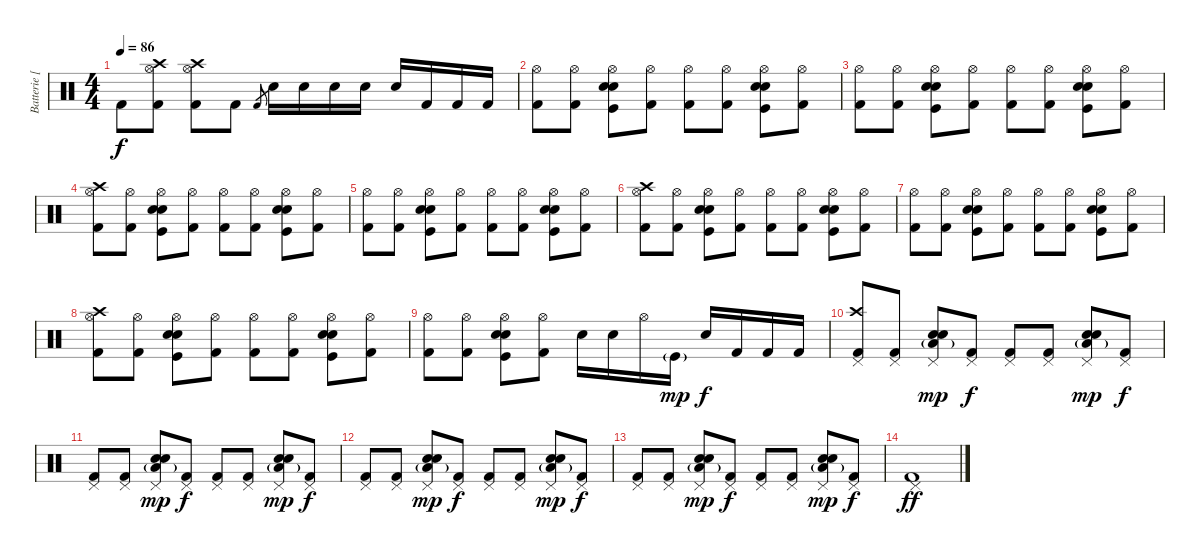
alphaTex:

\track ("Batterie [Dominic Howard]" "Batterie [") {instrument percussion}
\staff {score}
\articulation defaults
\ts (4 4)
\tempo 86
\clef neutral
\ks c "Kick (hit) 2".8{dy f}
("Crash high (hit)" "Hi-Hat (open)" "Kick (hit) 2").8 ("Crash high (hit)" "Hi-Hat (open)" "Kick (hit) 2").8 "Kick (hit) 2".8 "Kick (hit) 2"{sl}.8{gr} "Snare (hit) 2".16 "Snare (hit) 2".16 "Snare (hit) 2".16 "Snare (hit) 2".16 "Snare (hit) 2".16 "Kick (hit) 2".16 "Kick (hit) 2".16 "Kick (hit) 2".16 |
("Hi-Hat (open)" "Kick (hit) 2").8 ("Hi-Hat (open)" "Kick (hit) 2").8 ("Hi-Hat (open)" "Snare (hit) 2" "Electric Snare (hit)" "Kick (hit)").8 ("Hi-Hat (open)" "Kick (hit) 2").8 ("Hi-Hat (open)" "Kick (hit) 2").8 ("Hi-Hat (open)" "Kick (hit) 2").8 ("Hi-Hat (open)" "Snare (hit) 2" "Electric Snare (hit)" "Kick (hit)").8 ("Hi-Hat (open)" "Kick (hit) 2").8 |
("Hi-Hat (open)" "Kick (hit) 2").8 ("Hi-Hat (open)" "Kick (hit) 2").8 ("Hi-Hat (open)" "Snare (hit) 2" "Electric Snare (hit)" "Kick (hit)").8 ("Hi-Hat (open)" "Kick (hit) 2").8 ("Hi-Hat (open)" "Kick (hit) 2").8 ("Hi-Hat (open)" "Kick (hit) 2").8 ("Hi-Hat (open)" "Snare (hit) 2" "Electric Snare (hit)" "Kick (hit)").8 ("Hi-Hat (open)" "Kick (hit) 2").8 |
("Hi-Hat (open)" "Crash high (hit)" "Kick (hit) 2").8 ("Hi-Hat (open)" "Kick (hit) 2").8 ("Hi-Hat (open)" "Snare (hit) 2" "Electric Snare (hit)" "Kick (hit)").8 ("Hi-Hat (open)" "Kick (hit) 2").8 ("Hi-Hat (open)" "Kick (hit) 2").8 ("Hi-Hat (open)" "Kick (hit) 2").8 ("Hi-Hat (open)" "Snare (hit) 2" "Electric Snare (hit)" "Kick (hit)").8 ("Hi-Hat (open)" "Kick (hit) 2").8 |
("Hi-Hat (open)" "Kick (hit) 2").8 ("Hi-Hat (open)" "Kick (hit) 2").8 ("Hi-Hat (open)" "Snare (hit) 2" "Electric Snare (hit)" "Kick (hit)").8 ("Hi-Hat (open)" "Kick (hit) 2").8 ("Hi-Hat (open)" "Kick (hit) 2").8 ("Hi-Hat (open)" "Kick (hit) 2").8 ("Hi-Hat (open)" "Snare (hit) 2" "Electric Snare (hit)" "Kick (hit)").8 ("Hi-Hat (open)" "Kick (hit) 2").8 |
("Hi-Hat (open)" "Crash high (hit)" "Kick (hit) 2").8 ("Hi-Hat (open)" "Kick (hit) 2").8 ("Hi-Hat (open)" "Snare (hit) 2" "Electric Snare (hit)" "Kick (hit)").8 ("Hi-Hat (open)" "Kick (hit) 2").8 ("Hi-Hat (open)" "Kick (hit) 2").8 ("Hi-Hat (open)" "Kick (hit) 2").8 ("Hi-Hat (open)" "Snare (hit) 2" "Electric Snare (hit)" "Kick (hit)").8 ("Hi-Hat (open)" "Kick (hit) 2").8 |
("Hi-Hat (open)" "Kick (hit) 2").8 ("Hi-Hat (open)" "Kick (hit) 2").8 ("Hi-Hat (open)" "Snare (hit) 2" "Electric Snare (hit)" "Kick (hit)").8 ("Hi-Hat (open)" "Kick (hit) 2").8 ("Hi-Hat (open)" "Kick (hit) 2").8 ("Hi-Hat (open)" "Kick (hit) 2").8 ("Hi-Hat (open)" "Snare (hit) 2" "Electric Snare (hit)" "Kick (hit)").8 ("Hi-Hat (open)" "Kick (hit) 2").8 |
("Hi-Hat (open)" "Crash high (hit)" "Kick (hit) 2").8 ("Hi-Hat (open)" "Kick (hit) 2").8 ("Hi-Hat (open)" "Snare (hit) 2" "Electric Snare (hit)" "Kick (hit)").8 ("Hi-Hat (open)" "Kick (hit) 2").8 ("Hi-Hat (open)" "Kick (hit) 2").8 ("Hi-Hat (open)" "Kick (hit) 2").8 ("Hi-Hat (open)" "Snare (hit) 2" "Electric Snare (hit)" "Kick (hit)").8 ("Hi-Hat (open)" "Kick (hit) 2").8 |
("Hi-Hat (open)" "Kick (hit) 2").8 ("Hi-Hat (open)" "Kick (hit) 2").8 ("Hi-Hat (open)" "Snare (hit) 2" "Electric Snare (hit)" "Kick (hit)").8 ("Hi-Hat (open)" "Kick (hit) 2").8 "Electric Snare (hit)".16 "Electric Snare (hit)".16 "Hi-Hat (open)".16 "Kick (hit)"{g}.16{dy mp} "Electric Snare (hit)".16{dy f} "Kick (hit) 2".16 "Kick (hit) 2".16 "Kick (hit) 2".16 |
("Kick (hit) 2" "Crash high (hit)" "Pedal Hi-Hat (hit)").8 ("Kick (hit) 2" "Pedal Hi-Hat (hit)").8 ("Snare (hit) 2" "Electric Snare (hit)" "Low Tom (hit)"{g} "Pedal Hi-Hat (hit)").8{dy mp} ("Kick (hit) 2" "Pedal Hi-Hat (hit)").8{dy f} ("Kick (hit) 2" "Pedal Hi-Hat (hit)").8 ("Kick (hit) 2" "Pedal Hi-Hat (hit)").8 ("Snare (hit) 2" "Electric Snare (hit)" "Low Tom (hit)"{g} "Pedal Hi-Hat (hit)").8{dy mp} ("Kick (hit) 2" "Pedal Hi-Hat (hit)").8{dy f} |
("Kick (hit) 2" "Pedal Hi-Hat (hit)").8 ("Kick (hit) 2" "Pedal Hi-Hat (hit)").8 ("Snare (hit) 2" "Electric Snare (hit)" "Low Tom (hit)"{g} "Pedal Hi-Hat (hit)").8{dy mp} ("Kick (hit) 2" "Pedal Hi-Hat (hit)").8{dy f} ("Kick (hit) 2" "Pedal Hi-Hat (hit)").8 ("Kick (hit) 2" "Pedal Hi-Hat (hit)").8 ("Snare (hit) 2" "Electric Snare (hit)" "Low Tom (hit)"{g} "Pedal Hi-Hat (hit)").8{dy mp} ("Kick (hit) 2" "Pedal Hi-Hat (hit)").8{dy f} |
("Kick (hit) 2" "Pedal Hi-Hat (hit)").8 ("Kick (hit) 2" "Pedal Hi-Hat (hit)").8 ("Snare (hit) 2" "Electric Snare (hit)" "Low Tom (hit)"{g} "Pedal Hi-Hat (hit)").8{dy mp} ("Kick (hit) 2" "Pedal Hi-Hat (hit)").8{dy f} ("Kick (hit) 2" "Pedal Hi-Hat (hit)").8 ("Kick (hit) 2" "Pedal Hi-Hat (hit)").8 ("Snare (hit) 2" "Electric Snare (hit)" "Low Tom (hit)"{g} "Pedal Hi-Hat (hit)").8{dy mp} ("Kick (hit) 2" "Pedal Hi-Hat (hit)").8{dy f} |
("Kick (hit) 2" "Pedal Hi-Hat (hit)").8 ("Kick (hit) 2" "Pedal Hi-Hat (hit)").8 ("Snare (hit) 2" "Electric Snare (hit)" "Low Tom (hit)"{g} "Pedal Hi-Hat (hit)").8{dy mp} ("Kick (hit) 2" "Pedal Hi-Hat (hit)").8{dy f} ("Kick (hit) 2" "Pedal Hi-Hat (hit)").8 ("Kick (hit) 2" "Pedal Hi-Hat (hit)").8 ("Snare (hit) 2" "Electric Snare (hit)" "Low Tom (hit)"{g} "Pedal Hi-Hat (hit)").8{dy mp} ("Kick (hit) 2" "Pedal Hi-Hat (hit)").8{dy f} |
("Pedal Hi-Hat (hit)" "Kick (hit) 2").1{dy ff}
